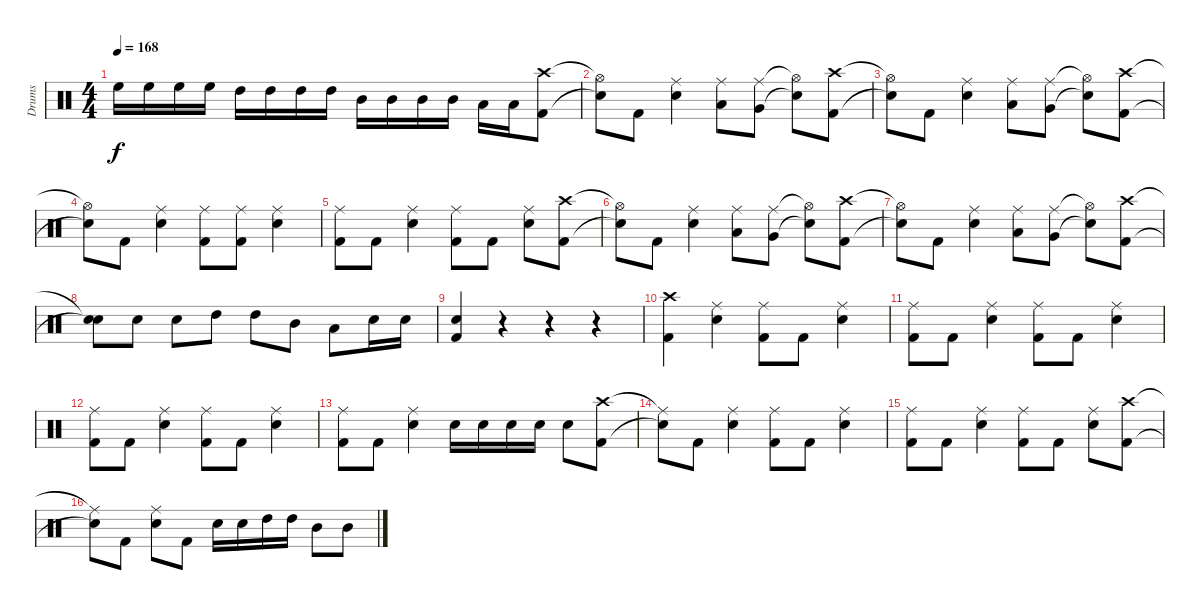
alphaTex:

\track ("Drums" "Drums") {instrument percussion}
\staff {score}
\articulation defaults
\ts (4 4)
\tempo 168
\clef neutral
\ks c "High Floor Tom (hit)".16{dy f} "High Floor Tom (hit)".16 "High Floor Tom (hit)".16 "High Floor Tom (hit)".16 "High Tom (hit)".16 "High Tom (hit)".16 "High Tom (hit)".16 "High Tom (hit)".16 "Mid Tom (hit)".16 "Mid Tom (hit)".16 "Mid Tom (hit)".16 "Mid Tom (hit)".16 "Low Tom (hit)".16 "Low Tom (hit)".16
("Crash high (hit)" "Kick (hit) 2").8 |
("Hi-Hat (open)"{t} "Snare (hit)"{t}).8 "Kick (hit) 2".8 ("Ride (middle)" "Electric Snare (hit)").4 ("Ride (middle)" "Low Tom (hit)").8 ("Ride (middle)" "Very Low Tom (hit)").8 ("Hi-Hat (open)"{t} "Electric Snare (hit)"{t}).8 ("Crash high (hit)" "Kick (hit) 2").8 |
("Hi-Hat (open)"{t} "Snare (hit)"{t}).8 "Kick (hit) 2".8 ("Ride (middle)" "Electric Snare (hit)").4 ("Ride (middle)" "Low Tom (hit)").8 ("Ride (middle)" "Very Low Tom (hit)").8 ("Hi-Hat (open)"{t} "Electric Snare (hit)"{t}).8 ("Crash high (hit)" "Kick (hit) 2").8 |
("Hi-Hat (open)"{t} "Snare (hit)"{t}).8 "Kick (hit) 2".8 ("Ride (middle)" "Electric Snare (hit)").4 ("Ride (middle)" "Kick (hit) 2").8 ("Ride (middle)" "Kick (hit) 2").8 ("Ride (middle)" "Electric Snare (hit)").4 |
("Ride (middle)" "Kick (hit) 2").8 "Kick (hit) 2".8 ("Ride (middle)" "Electric Snare (hit)").4 ("Ride (middle)" "Kick (hit) 2").8 "Kick (hit) 2".8 ("Ride (middle)" "Electric Snare (hit)").8 ("Crash high (hit)" "Kick (hit) 2").8 |
("Hi-Hat (open)"{t} "Snare (hit)"{t}).8 "Kick (hit) 2".8 ("Ride (middle)" "Electric Snare (hit)").4 ("Ride (middle)" "Low Tom (hit)").8 ("Ride (middle)" "Very Low Tom (hit)").8 ("Hi-Hat (open)"{t} "Electric Snare (hit)"{t}).8 ("Crash high (hit)" "Kick (hit) 2").8 |
("Hi-Hat (open)"{t} "Snare (hit)"{t}).8 "Kick (hit) 2".8 ("Ride (middle)" "Electric Snare (hit)").4 ("Ride (middle)" "Low Tom (hit)").8 ("Ride (middle)" "Very Low Tom (hit)").8 ("Hi-Hat (open)"{t} "Electric Snare (hit)"{t}).8 ("Crash high (hit)" "Kick (hit) 2").8 |
("Snare (hit)"{t} "Snare (hit)"{t}).8 "Electric Snare (hit)".8 "Electric Snare (hit)".8 "High Tom (hit)".8 "High Tom (hit)".8 "Mid Tom (hit)".8 "Low Tom (hit)".8 "Electric Snare (hit)".16 "Electric Snare (hit)".16 |
("Electric Snare (hit)" "Kick (hit) 2").4 r.4 r.4 r.4 |
("Crash high (hit)" "Kick (hit) 2").4 ("Ride (middle)" "Electric Snare (hit)").4 ("Ride (middle)" "Kick (hit) 2").8 "Kick (hit) 2".8 ("Ride (middle)" "Electric Snare (hit)").4 |
("Ride (middle)" "Kick (hit) 2").8 "Kick (hit) 2".8 ("Ride (middle)" "Electric Snare (hit)").4 ("Ride (middle)" "Kick (hit) 2").8 "Kick (hit) 2".8 ("Ride (middle)" "Electric Snare (hit)").4 |
("Ride (middle)" "Kick (hit) 2").8 "Kick (hit) 2".8 ("Ride (middle)" "Electric Snare (hit)").4 ("Ride (middle)" "Kick (hit) 2").8 "Kick (hit) 2".8 ("Ride (middle)" "Electric Snare (hit)").4 |
("Ride (middle)" "Kick (hit) 2").8 "Kick (hit) 2".8 ("Ride (middle)" "Electric Snare (hit)").4 "Electric Snare (hit)".16 "Electric Snare (hit)".16 "Electric Snare (hit)".16 "Electric Snare (hit)".16 "Electric Snare (hit)".8 ("Crash high (hit)" "Kick (hit) 2").8 |
("Ride (middle)"{t} "Snare (hit)"{t}).8 "Kick (hit) 2".8 ("Ride (middle)" "Electric Snare (hit)").4 ("Ride (middle)" "Kick (hit) 2").8 "Kick (hit) 2".8 ("Ride (middle)" "Electric Snare (hit)").4 |
("Ride (middle)" "Kick (hit) 2").8 "Kick (hit) 2".8 ("Ride (middle)" "Electric Snare (hit)").4 ("Ride (middle)" "Kick (hit) 2").8 "Kick (hit) 2".8 ("Ride (middle)" "Electric Snare (hit)").8 ("Crash high (hit)" "Kick (hit) 2").8 |
("Ride (middle)"{t} "Snare (hit)"{t}).8 "Kick (hit) 2".8 ("Ride (middle)" "Electric Snare (hit)").8 "Kick (hit) 2".8 "Electric Snare (hit)".16 "Electric Snare (hit)".16 "High Tom (hit)".16 "High Tom (hit)".16 "Mid Tom (hit)".8 "Mid Tom (hit)".8
